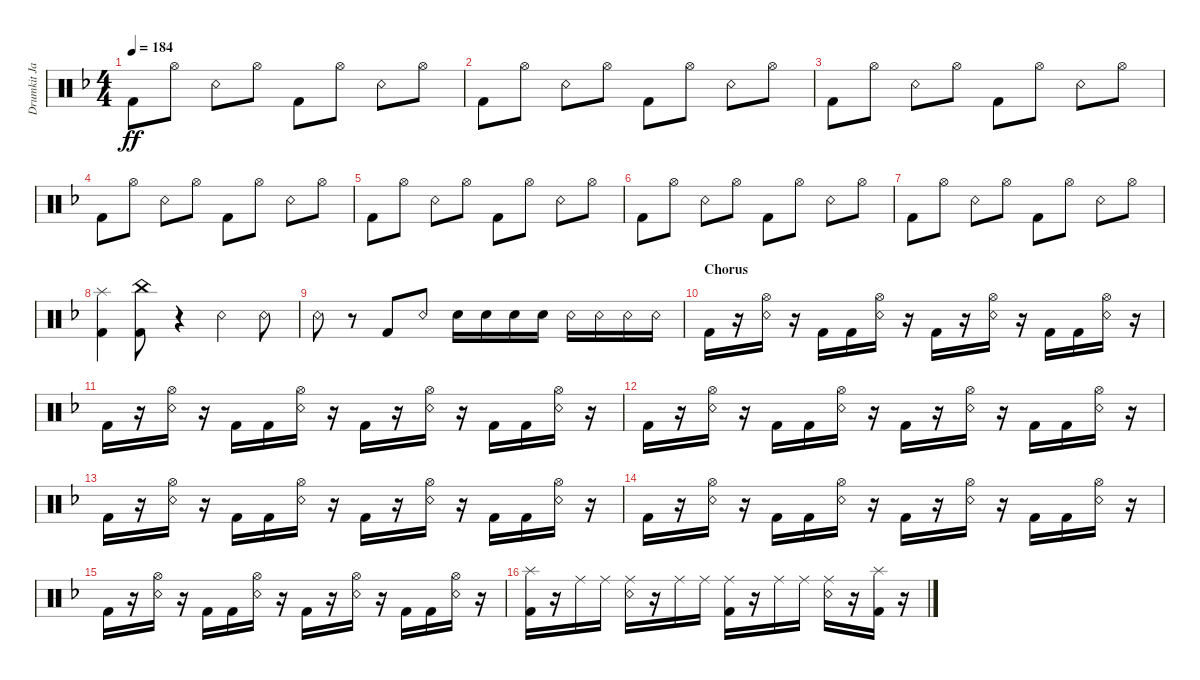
\track ("Drumkit Jason" "Drumkit Ja") {instrument percussion}
\staff {score}
\articulation defaults
\ts (4 4)
\tempo 184
\clef neutral
\ks dminor "Kick (hit) 2".8{dy ff} "Hi-Hat (open)".8 "Snare (rim shot)".8 "Hi-Hat (open)".8 "Kick (hit) 2".8 "Hi-Hat (open)".8 "Snare (rim shot)".8 "Hi-Hat (open)".8
|
"Kick (hit) 2".8 "Hi-Hat (open)".8 "Snare (rim shot)".8 "Hi-Hat (open)".8 "Kick (hit) 2".8 "Hi-Hat (open)".8 "Snare (rim shot)".8 "Hi-Hat (open)".8 |
"Kick (hit) 2".8 "Hi-Hat (open)".8 "Snare (rim shot)".8 "Hi-Hat (open)".8 "Kick (hit) 2".8 "Hi-Hat (open)".8 "Snare (rim shot)".8 "Hi-Hat (open)".8 |
"Kick (hit) 2".8 "Hi-Hat (open)".8 "Snare (rim shot)".8 "Hi-Hat (open)".8 "Kick (hit) 2".8 "Hi-Hat (open)".8 "Snare (rim shot)".8 "Hi-Hat (open)".8 |
"Kick (hit) 2".8 "Hi-Hat (open)".8 "Snare (rim shot)".8 "Hi-Hat (open)".8 "Kick (hit) 2".8 "Hi-Hat (open)".8 "Snare (rim shot)".8 "Hi-Hat (open)".8 |
"Kick (hit) 2".8 "Hi-Hat (open)".8 "Snare (rim shot)".8 "Hi-Hat (open)".8 "Kick (hit) 2".8 "Hi-Hat (open)".8 "Snare (rim shot)".8 "Hi-Hat (open)".8 |
"Kick (hit) 2".8 "Hi-Hat (open)".8 "Snare (rim shot)".8 "Hi-Hat (open)".8 "Kick (hit) 2".8 "Hi-Hat (open)".8 "Snare (rim shot)".8 "Hi-Hat (open)".8 |
("Splash (hit)" "Kick (hit) 2").4 ("China (hit)" "Kick (hit) 2").8 r.4 "Snare (rim shot)".4 "Snare (rim shot)".8 |
"Snare (rim shot)".8 r.8 "Kick (hit) 2".8 "Snare (rim shot)".8 "Snare (hit) 2".16 "Snare (hit) 2".16 "Snare (hit) 2".16 "Snare (hit) 2".16 "Snare (rim shot)".16 "Snare (rim shot)".16 "Snare (rim shot)".16 "Snare (rim shot)".16 |
\section ("" "Chorus")
"Kick (hit) 2".16 r.16 ("Snare (rim shot)" "Hi-Hat (open)").16 r.16 "Kick (hit) 2".16 "Kick (hit) 2".16 ("Snare (rim shot)" "Hi-Hat (open)").16 r.16 "Kick (hit) 2".16 r.16 ("Snare (rim shot)" "Hi-Hat (open)").16 r.16 "Kick (hit) 2".16 "Kick (hit) 2".16 ("Snare (rim shot)" "Hi-Hat (open)").16 r.16 |
"Kick (hit) 2".16 r.16 ("Snare (rim shot)" "Hi-Hat (open)").16 r.16 "Kick (hit) 2".16 "Kick (hit) 2".16 ("Snare (rim shot)" "Hi-Hat (open)").16 r.16 "Kick (hit) 2".16 r.16 ("Snare (rim shot)" "Hi-Hat (open)").16 r.16 "Kick (hit) 2".16 "Kick (hit) 2".16 ("Snare (rim shot)" "Hi-Hat (open)").16 r.16 |
"Kick (hit) 2".16 r.16 ("Snare (rim shot)" "Hi-Hat (open)").16 r.16 "Kick (hit) 2".16 "Kick (hit) 2".16 ("Snare (rim shot)" "Hi-Hat (open)").16 r.16 "Kick (hit) 2".16 r.16 ("Snare (rim shot)" "Hi-Hat (open)").16 r.16 "Kick (hit) 2".16 "Kick (hit) 2".16 ("Snare (rim shot)" "Hi-Hat (open)").16 r.16 |
"Kick (hit) 2".16 r.16 ("Snare (rim shot)" "Hi-Hat (open)").16 r.16 "Kick (hit) 2".16 "Kick (hit) 2".16 ("Snare (rim shot)" "Hi-Hat (open)").16 r.16 "Kick (hit) 2".16 r.16 ("Snare (rim shot)" "Hi-Hat (open)").16 r.16 "Kick (hit) 2".16 "Kick (hit) 2".16 ("Snare (rim shot)" "Hi-Hat (open)").16 r.16 |
"Kick (hit) 2".16 r.16 ("Snare (rim shot)" "Hi-Hat (open)").16 r.16 "Kick (hit) 2".16 "Kick (hit) 2".16 ("Snare (rim shot)" "Hi-Hat (open)").16 r.16 "Kick (hit) 2".16 r.16 ("Snare (rim shot)" "Hi-Hat (open)").16 r.16 "Kick (hit) 2".16 "Kick (hit) 2".16 ("Snare (rim shot)" "Hi-Hat (open)").16 r.16 |
"Kick (hit) 2".16 r.16 ("Snare (rim shot)" "Hi-Hat (open)").16 r.16 "Kick (hit) 2".16 "Kick (hit) 2".16 ("Snare (rim shot)" "Hi-Hat (open)").16 r.16 "Kick (hit) 2".16 r.16 ("Snare (rim shot)" "Hi-Hat (open)").16 r.16 "Kick (hit) 2".16 "Kick (hit) 2".16 ("Snare (rim shot)" "Hi-Hat (open)").16 r.16 |
("Splash (hit)" "Kick (hit) 2").16 r.16 "Ride (middle)".16 "Ride (middle)".16 ("Ride (middle)" "Snare (rim shot)").16 r.16 "Ride (middle)".16 "Ride (middle)".16 ("Ride (middle)" "Kick (hit) 2").16 r.16 "Ride (middle)".16 "Ride (middle)".16 ("Ride (middle)" "Snare (rim shot)").16 r.16 ("Splash (hit)" "Kick (hit) 2").16 r.16
